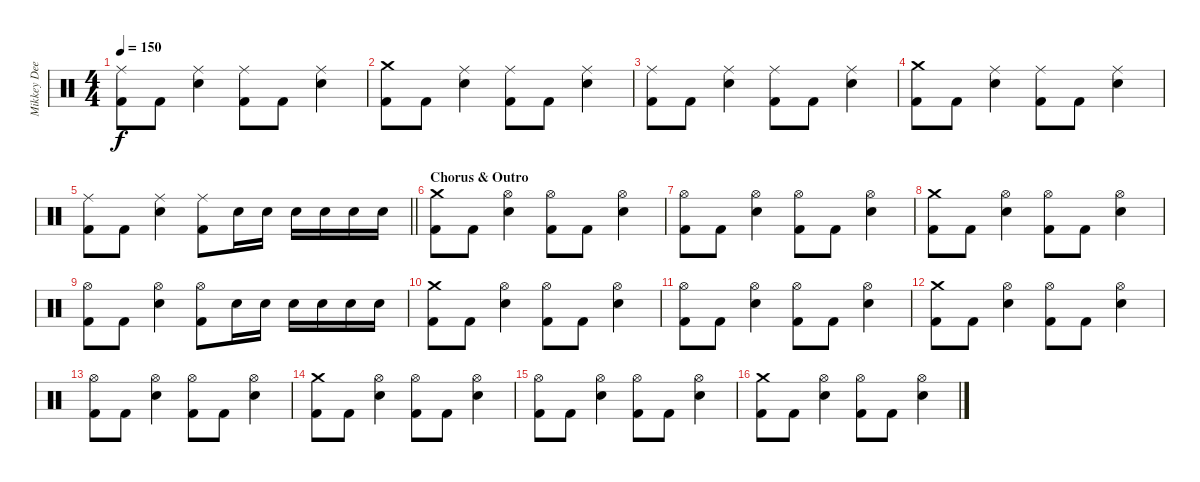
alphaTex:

\track ("Mikkey Dee" "Mikkey Dee") {instrument percussion}
\staff {score}
\articulation defaults
\ts (4 4)
\tempo 150
\clef neutral
\ks c
("Ride (middle)" "Kick (hit) 2").8{dy f} "Kick (hit) 2".8 ("Ride (middle)" "Electric Snare (hit)").4 ("Ride (middle)" "Kick (hit) 2").8 "Kick (hit) 2".8 ("Ride (middle)" "Electric Snare (hit)").4 |
("Crash medium (hit)" "Kick (hit) 2").8 "Kick (hit) 2".8 ("Ride (middle)" "Electric Snare (hit)").4 ("Ride (middle)" "Kick (hit) 2").8 "Kick (hit) 2".8 ("Ride (middle)" "Electric Snare (hit)").4 |
("Ride (middle)" "Kick (hit) 2").8 "Kick (hit) 2".8 ("Ride (middle)" "Electric Snare (hit)").4 ("Ride (middle)" "Kick (hit) 2").8 "Kick (hit) 2".8 ("Ride (middle)" "Electric Snare (hit)").4 |
("Crash medium (hit)" "Kick (hit) 2").8 "Kick (hit) 2".8 ("Ride (middle)" "Electric Snare (hit)").4 ("Ride (middle)" "Kick (hit) 2").8 "Kick (hit) 2".8 ("Ride (middle)" "Electric Snare (hit)").4 |
\barLineRight lightlight
("Ride (middle)" "Kick (hit) 2").8 "Kick (hit) 2".8 ("Ride (middle)" "Electric Snare (hit)").4 ("Ride (middle)" "Kick (hit) 2").8 "Electric Snare (hit)".16 "Electric Snare (hit)".16 "Electric Snare (hit)".16 "Electric Snare (hit)".16 "Electric Snare (hit)".16 "Electric Snare (hit)".16 |
\section ("" "Chorus & Outro")
("Crash medium (hit)" "Kick (hit) 2").8 "Kick (hit) 2".8 ("Hi-Hat (open)" "Electric Snare (hit)").4 ("Hi-Hat (open)" "Kick (hit) 2").8 "Kick (hit) 2".8 ("Hi-Hat (open)" "Electric Snare (hit)").4 |
("Hi-Hat (open)" "Kick (hit) 2").8 "Kick (hit) 2".8 ("Hi-Hat (open)" "Electric Snare (hit)").4 ("Hi-Hat (open)" "Kick (hit) 2").8 "Kick (hit) 2".8 ("Hi-Hat (open)" "Electric Snare (hit)").4 |
("Crash medium (hit)" "Kick (hit) 2").8 "Kick (hit) 2".8 ("Hi-Hat (open)" "Electric Snare (hit)").4 ("Hi-Hat (open)" "Kick (hit) 2").8 "Kick (hit) 2".8 ("Hi-Hat (open)" "Electric Snare (hit)").4 |
("Hi-Hat (open)" "Kick (hit) 2").8 "Kick (hit) 2".8 ("Hi-Hat (open)" "Electric Snare (hit)").4 ("Hi-Hat (open)" "Kick (hit) 2").8 "Electric Snare (hit)".16 "Electric Snare (hit)".16 "Electric Snare (hit)".16 "Electric Snare (hit)".16 "Electric Snare (hit)".16 "Electric Snare (hit)".16 |
("Crash medium (hit)" "Kick (hit) 2").8 "Kick (hit) 2".8 ("Hi-Hat (open)" "Electric Snare (hit)").4 ("Hi-Hat (open)" "Kick (hit) 2").8 "Kick (hit) 2".8 ("Hi-Hat (open)" "Electric Snare (hit)").4 |
("Hi-Hat (open)" "Kick (hit) 2").8 "Kick (hit) 2".8 ("Hi-Hat (open)" "Electric Snare (hit)").4 ("Hi-Hat (open)" "Kick (hit) 2").8 "Kick (hit) 2".8 ("Hi-Hat (open)" "Electric Snare (hit)").4 |
("Crash medium (hit)" "Kick (hit) 2").8 "Kick (hit) 2".8 ("Hi-Hat (open)" "Electric Snare (hit)").4 ("Hi-Hat (open)" "Kick (hit) 2").8 "Kick (hit) 2".8 ("Hi-Hat (open)" "Electric Snare (hit)").4 |
("Hi-Hat (open)" "Kick (hit) 2").8 "Kick (hit) 2".8 ("Hi-Hat (open)" "Electric Snare (hit)").4 ("Hi-Hat (open)" "Kick (hit) 2").8 "Kick (hit) 2".8 ("Hi-Hat (open)" "Electric Snare (hit)").4 |
("Crash medium (hit)" "Kick (hit) 2").8 "Kick (hit) 2".8 ("Hi-Hat (open)" "Electric Snare (hit)").4 ("Hi-Hat (open)" "Kick (hit) 2").8 "Kick (hit) 2".8 ("Hi-Hat (open)" "Electric Snare (hit)").4 |
("Hi-Hat (open)" "Kick (hit) 2").8 "Kick (hit) 2".8 ("Hi-Hat (open)" "Electric Snare (hit)").4 ("Hi-Hat (open)" "Kick (hit) 2").8 "Kick (hit) 2".8 ("Hi-Hat (open)" "Electric Snare (hit)").4 |
("Crash medium (hit)" "Kick (hit) 2").8 "Kick (hit) 2".8 ("Hi-Hat (open)" "Electric Snare (hit)").4 ("Hi-Hat (open)" "Kick (hit) 2").8 "Kick (hit) 2".8 ("Hi-Hat (open)" "Electric Snare (hit)").4
